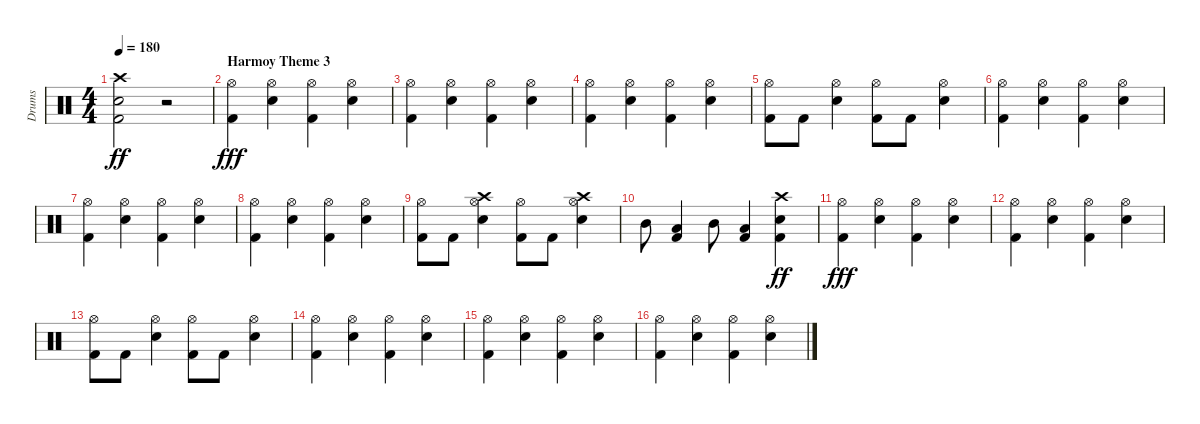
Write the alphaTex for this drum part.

\track ("Drums" "Drums") {instrument percussion}
\staff {score}
\articulation defaults
\ts (4 4)
\tempo 180
\clef neutral
\ks c
("Crash high (hit)" "Snare (hit) 2" "Kick (hit) 2").2{dy ff} r.2 |
\section ("" "Harmoy Theme 3")
("Hi-Hat (open)" "Kick (hit) 2").4{dy fff} ("Hi-Hat (open)" "Snare (hit) 2").4 ("Hi-Hat (open)" "Kick (hit) 2").4 ("Hi-Hat (open)" "Snare (hit) 2").4 |
("Hi-Hat (open)" "Kick (hit) 2").4 ("Hi-Hat (open)" "Snare (hit) 2").4 ("Hi-Hat (open)" "Kick (hit) 2").4 ("Hi-Hat (open)" "Snare (hit) 2").4 |
("Hi-Hat (open)" "Kick (hit) 2").4 ("Hi-Hat (open)" "Snare (hit) 2").4 ("Hi-Hat (open)" "Kick (hit) 2").4 ("Hi-Hat (open)" "Snare (hit) 2").4 |
("Hi-Hat (open)" "Kick (hit) 2").8 "Kick (hit) 2".8 ("Hi-Hat (open)" "Snare (hit) 2").4 ("Hi-Hat (open)" "Kick (hit) 2").8 "Kick (hit) 2".8 ("Hi-Hat (open)" "Snare (hit) 2").4 |
("Hi-Hat (open)" "Kick (hit) 2").4 ("Hi-Hat (open)" "Snare (hit) 2").4 ("Hi-Hat (open)" "Kick (hit) 2").4 ("Hi-Hat (open)" "Snare (hit) 2").4 |
("Hi-Hat (open)" "Kick (hit) 2").4 ("Hi-Hat (open)" "Snare (hit) 2").4 ("Hi-Hat (open)" "Kick (hit) 2").4 ("Hi-Hat (open)" "Snare (hit) 2").4 |
("Hi-Hat (open)" "Kick (hit) 2").4 ("Hi-Hat (open)" "Snare (hit) 2").4 ("Hi-Hat (open)" "Kick (hit) 2").4 ("Hi-Hat (open)" "Snare (hit) 2").4 |
("Hi-Hat (open)" "Kick (hit) 2").8 "Kick (hit) 2".8 ("Hi-Hat (open)" "Crash high (hit)" "Snare (hit) 2").4 ("Hi-Hat (open)" "Kick (hit) 2").8 "Kick (hit) 2".8 ("Hi-Hat (open)" "Crash high (hit)" "Snare (hit) 2").4 |
"Mid Tom (hit)".8 ("Low Tom (hit)" "Kick (hit) 2").4 "Mid Tom (hit)".8 ("Low Tom (hit)" "Kick (hit) 2").4 ("Crash high (hit)" "Snare (hit) 2" "Kick (hit) 2").4{dy ff} |
("Hi-Hat (open)" "Kick (hit) 2").4{dy fff} ("Hi-Hat (open)" "Snare (hit) 2").4 ("Hi-Hat (open)" "Kick (hit) 2").4 ("Hi-Hat (open)" "Snare (hit) 2").4 |
("Hi-Hat (open)" "Kick (hit) 2").4 ("Hi-Hat (open)" "Snare (hit) 2").4 ("Hi-Hat (open)" "Kick (hit) 2").4 ("Hi-Hat (open)" "Snare (hit) 2").4 |
("Hi-Hat (open)" "Kick (hit) 2").8 "Kick (hit) 2".8 ("Hi-Hat (open)" "Snare (hit) 2").4 ("Hi-Hat (open)" "Kick (hit) 2").8 "Kick (hit) 2".8 ("Hi-Hat (open)" "Snare (hit) 2").4 |
("Hi-Hat (open)" "Kick (hit) 2").4 ("Hi-Hat (open)" "Snare (hit) 2").4 ("Hi-Hat (open)" "Kick (hit) 2").4 ("Hi-Hat (open)" "Snare (hit) 2").4 |
("Hi-Hat (open)" "Kick (hit) 2").4 ("Hi-Hat (open)" "Snare (hit) 2").4 ("Hi-Hat (open)" "Kick (hit) 2").4 ("Hi-Hat (open)" "Snare (hit) 2").4 |
("Hi-Hat (open)" "Kick (hit) 2").4 ("Hi-Hat (open)" "Snare (hit) 2").4 ("Hi-Hat (open)" "Kick (hit) 2").4 ("Hi-Hat (open)" "Snare (hit) 2").4
